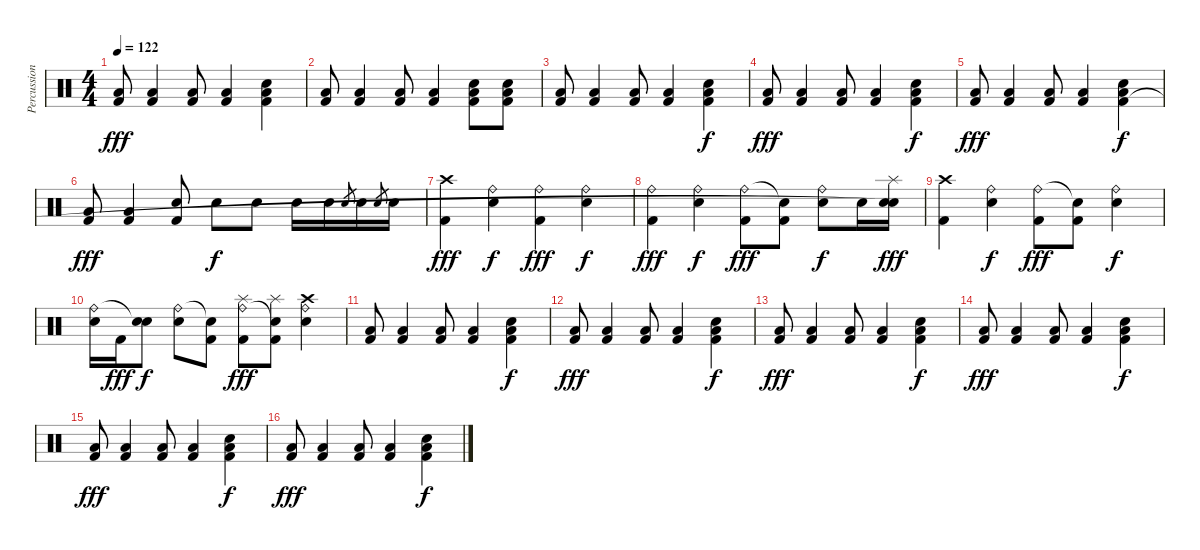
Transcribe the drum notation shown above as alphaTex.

\track ("Percussions" "Percussion") {instrument percussion}
\staff {score}
\articulation defaults
\ts (4 4)
\tempo 122
\clef neutral
\ks c
("Low Tom (hit)" "Kick (hit) 2").8{dy fff} ("Low Tom (hit)" "Kick (hit) 2").4 ("Low Tom (hit)" "Kick (hit) 2").8 ("Low Tom (hit)" "Kick (hit) 2").4 ("Snare (hit) 2" "Low Tom (hit)" "Kick (hit) 2").4 |
("Low Tom (hit)" "Kick (hit) 2").8 ("Low Tom (hit)" "Kick (hit) 2").4 ("Low Tom (hit)" "Kick (hit) 2").8 ("Low Tom (hit)" "Kick (hit) 2").4 ("Snare (hit) 2" "Low Tom (hit)" "Kick (hit) 2").8 ("Snare (hit) 2" "Low Tom (hit)" "Kick (hit) 2").8 |
("Low Tom (hit)" "Kick (hit) 2").8 ("Low Tom (hit)" "Kick (hit) 2").4 ("Low Tom (hit)" "Kick (hit) 2").8 ("Low Tom (hit)" "Kick (hit) 2").4 ("Snare (hit) 2" "Low Tom (hit)" "Kick (hit) 2").4{dy f} |
("Low Tom (hit)" "Kick (hit) 2").8{dy fff} ("Low Tom (hit)" "Kick (hit) 2").4 ("Low Tom (hit)" "Kick (hit) 2").8 ("Low Tom (hit)" "Kick (hit) 2").4 ("Snare (hit) 2" "Low Tom (hit)" "Kick (hit) 2").4{dy f} |
("Low Tom (hit)" "Kick (hit) 2").8{dy fff} ("Low Tom (hit)" "Kick (hit) 2").4 ("Low Tom (hit)" "Kick (hit) 2").8 ("Low Tom (hit)" "Kick (hit) 2").4 ("Snare (hit) 2" "Low Tom (hit)" "Kick (hit) 2").4{dy f} |
("Low Tom (hit)" "Kick (hit) 2").8{dy fff} ("Low Tom (hit)" "Kick (hit) 2").4 ("Snare (hit) 2" "Kick (hit) 2").8 "Snare (hit) 2".8{dy f} "Snare (hit) 2".8 "Snare (hit) 2".16 "Snare (hit) 2".16 "Snare (hit) 2".8{gr} "Snare (hit) 2".16 "Snare (hit) 2".8{gr} "Snare (hit) 2".16 |
("Crash high (hit)" "Kick (hit) 2").4{dy fff} ("Snare (hit) 2" "Ride (bell)").4{dy f} ("Kick (hit) 2" "Ride (bell)").4{dy fff} ("Snare (hit) 2" "Ride (bell)").4{dy f} |
("Kick (hit) 2" "Ride (bell)").4{dy fff} ("Snare (hit) 2" "Ride (bell)").4{dy f} ("Kick (hit) 2" "Ride (bell)").8{dy fff} ("Kick (hit) 2" "Snare (hit)"{t}).8 ("Snare (hit) 2" "Ride (bell)").8{dy f} "Snare (hit) 2".16 ("Splash (hit)" "Snare (hit) 2" "Snare (hit)"{t}).16{dy fff} |
("Crash high (hit)" "Kick (hit) 2").4 ("Snare (hit) 2" "Ride (bell)").4{dy f} ("Kick (hit) 2" "Ride (bell)").8{dy fff} ("Kick (hit) 2" "Snare (hit)"{t}).8 ("Snare (hit) 2" "Ride (bell)").4{dy f} |
("Snare (hit) 2" "Ride (bell)").16 "Kick (hit) 2".16{dy fff} ("Snare (hit) 2" "Snare (hit)"{t}).8{dy f} ("Snare (hit) 2" "Ride (bell)").8 ("Kick (hit) 2" "Snare (hit)"{t}).8 ("Splash (hit)" "Kick (hit) 2" "Ride (bell)").8{dy fff} ("Splash (hit)" "Kick (hit) 2" "Snare (hit)"{t}).8 ("Crash high (hit)" "Snare (hit) 2" "Ride (bell)").4 |
("Low Tom (hit)" "Kick (hit) 2").8 ("Low Tom (hit)" "Kick (hit) 2").4 ("Low Tom (hit)" "Kick (hit) 2").8 ("Low Tom (hit)" "Kick (hit) 2").4 ("Snare (hit) 2" "Low Tom (hit)" "Kick (hit) 2").4{dy f} |
("Low Tom (hit)" "Kick (hit) 2").8{dy fff} ("Low Tom (hit)" "Kick (hit) 2").4 ("Low Tom (hit)" "Kick (hit) 2").8 ("Low Tom (hit)" "Kick (hit) 2").4 ("Snare (hit) 2" "Low Tom (hit)" "Kick (hit) 2").4{dy f} |
("Low Tom (hit)" "Kick (hit) 2").8{dy fff} ("Low Tom (hit)" "Kick (hit) 2").4 ("Low Tom (hit)" "Kick (hit) 2").8 ("Low Tom (hit)" "Kick (hit) 2").4 ("Snare (hit) 2" "Low Tom (hit)" "Kick (hit) 2").4{dy f} |
("Low Tom (hit)" "Kick (hit) 2").8{dy fff} ("Low Tom (hit)" "Kick (hit) 2").4 ("Low Tom (hit)" "Kick (hit) 2").8 ("Low Tom (hit)" "Kick (hit) 2").4 ("Snare (hit) 2" "Low Tom (hit)" "Kick (hit) 2").4{dy f} |
("Low Tom (hit)" "Kick (hit) 2").8{dy fff} ("Low Tom (hit)" "Kick (hit) 2").4 ("Low Tom (hit)" "Kick (hit) 2").8 ("Low Tom (hit)" "Kick (hit) 2").4 ("Snare (hit) 2" "Low Tom (hit)" "Kick (hit) 2").4{dy f} |
("Low Tom (hit)" "Kick (hit) 2").8{dy fff} ("Low Tom (hit)" "Kick (hit) 2").4 ("Low Tom (hit)" "Kick (hit) 2").8 ("Low Tom (hit)" "Kick (hit) 2").4 ("Snare (hit) 2" "Low Tom (hit)" "Kick (hit) 2").4{dy f}
